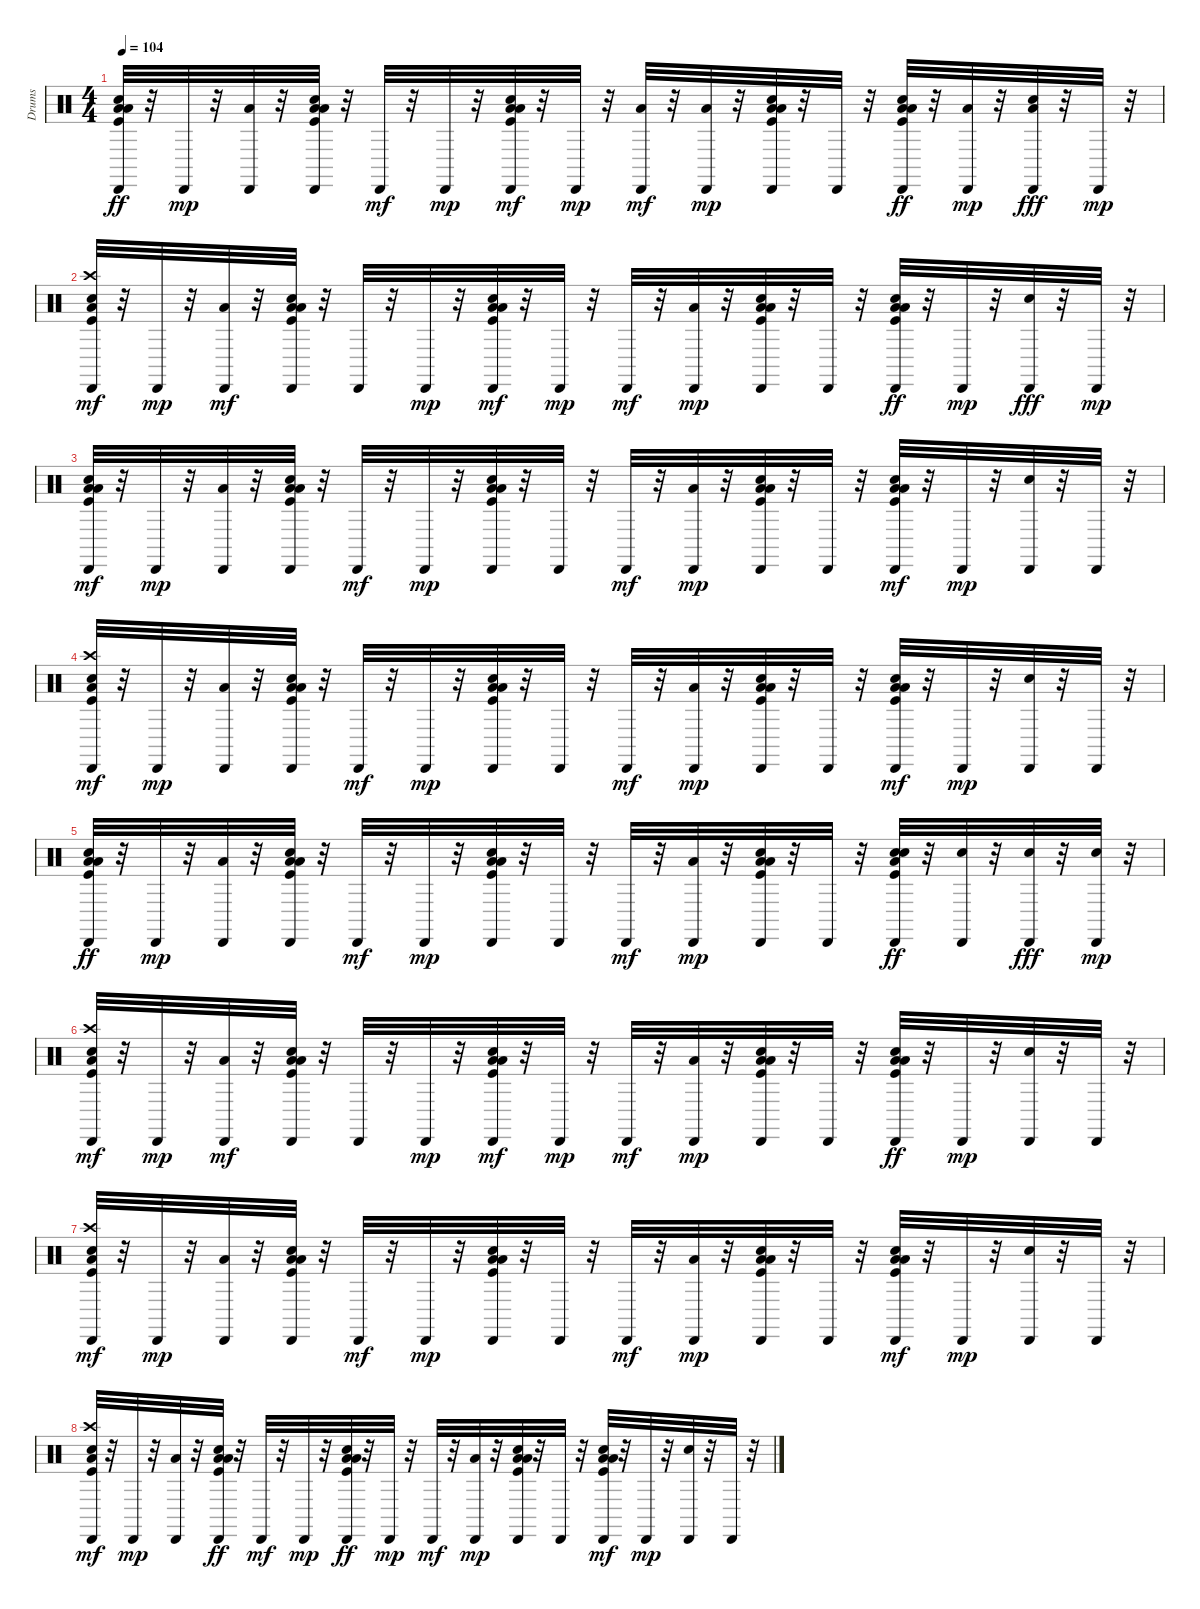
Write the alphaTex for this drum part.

\track ("Drums" "Drums") {instrument percussion}
\staff {score}
\articulation defaults
\ts (4 4)
\tempo 104
\clef neutral
\ks c
("Low Floor Tom (hit)" "Kick (hit)" "Hand Clap (hit)" "Cabasa (hit)" "Low Tom (hit)").32{dy ff} r.32 "Cabasa (hit)".32{dy mp} r.32 ("Low Tom (hit)" "Cabasa (hit)").32 r.32 ("Low Tom (hit)" "Kick (hit)" "Cabasa (hit)" "Low Floor Tom (hit)" "Hand Clap (hit)").32 r.32 "Cabasa (hit)".32{dy mf} r.32 "Cabasa (hit)".32{dy mp} r.32 ("Low Tom (hit)" "Low Floor Tom (hit)" "Kick (hit)" "Cabasa (hit)" "Hand Clap (hit)").32{dy mf} r.32 "Cabasa (hit)".32{dy mp} r.32 ("Cabasa (hit)" "Low Tom (hit)").32{dy mf} r.32 ("Low Tom (hit)" "Cabasa (hit)").32{dy mp} r.32 ("Low Tom (hit)" "Low Floor Tom (hit)" "Kick (hit)" "Hand Clap (hit)" "Cabasa (hit)").32 r.32 "Cabasa (hit)".32 r.32 ("Low Tom (hit)" "Kick (hit)" "Hand Clap (hit)" "Cabasa (hit)" "Low Floor Tom (hit)").32{dy ff} r.32 ("Cabasa (hit)" "Low Tom (hit)").32{dy mp} r.32 ("Cabasa (hit)" "Low Floor Tom (hit)" "Snare (hit) 2").32{dy fff} r.32 "Cabasa (hit)".32{dy mp} r.32 |
("Low Floor Tom (hit)" "Hand Clap (hit)" "Cabasa (hit)" "Crash high (hit)" "Kick (hit)").32{dy mf} r.32 "Cabasa (hit)".32{dy mp} r.32 ("Cabasa (hit)" "Low Tom (hit)").32{dy mf} r.32 ("Hand Clap (hit)" "Cabasa (hit)" "Low Tom (hit)" "Low Floor Tom (hit)" "Kick (hit)").32 r.32 "Cabasa (hit)".32 r.32 "Cabasa (hit)".32{dy mp} r.32 ("Cabasa (hit)" "Low Tom (hit)" "Low Floor Tom (hit)" "Hand Clap (hit)" "Kick (hit)").32{dy mf} r.32 "Cabasa (hit)".32{dy mp} r.32 "Cabasa (hit)".32{dy mf} r.32 ("Cabasa (hit)" "Low Tom (hit)").32{dy mp} r.32 ("Hand Clap (hit)" "Low Tom (hit)" "Low Floor Tom (hit)" "Kick (hit)" "Cabasa (hit)").32 r.32 "Cabasa (hit)".32 r.32 ("Kick (hit)" "Hand Clap (hit)" "Cabasa (hit)" "Low Tom (hit)" "Low Floor Tom (hit)").32{dy ff} r.32 "Cabasa (hit)".32{dy mp} r.32 ("Cabasa (hit)" "Snare (hit) 2").32{dy fff} r.32 "Cabasa (hit)".32{dy mp} r.32 |
("Hand Clap (hit)" "Low Floor Tom (hit)" "Cabasa (hit)" "Kick (hit)" "Low Tom (hit)").32{dy mf} r.32 "Cabasa (hit)".32{dy mp} r.32 ("Cabasa (hit)" "Low Tom (hit)").32 r.32 ("Kick (hit)" "Hand Clap (hit)" "Cabasa (hit)" "Low Floor Tom (hit)" "Low Tom (hit)").32 r.32 "Cabasa (hit)".32{dy mf} r.32 "Cabasa (hit)".32{dy mp} r.32 ("Low Floor Tom (hit)" "Low Tom (hit)" "Kick (hit)" "Hand Clap (hit)" "Cabasa (hit)").32 r.32 "Cabasa (hit)".32 r.32 "Cabasa (hit)".32{dy mf} r.32 ("Low Tom (hit)" "Cabasa (hit)").32{dy mp} r.32 ("Low Floor Tom (hit)" "Low Tom (hit)" "Kick (hit)" "Hand Clap (hit)" "Cabasa (hit)").32 r.32 "Cabasa (hit)".32 r.32 ("Low Floor Tom (hit)" "Low Tom (hit)" "Kick (hit)" "Hand Clap (hit)" "Cabasa (hit)").32{dy mf} r.32 "Cabasa (hit)".32{dy mp} r.32 ("Snare (hit) 2" "Cabasa (hit)").32 r.32 "Cabasa (hit)".32 r.32 |
("Crash high (hit)" "Hand Clap (hit)" "Low Floor Tom (hit)" "Kick (hit)" "Cabasa (hit)").32{dy mf} r.32 "Cabasa (hit)".32{dy mp} r.32 ("Low Tom (hit)" "Cabasa (hit)").32 r.32 ("Low Tom (hit)" "Kick (hit)" "Hand Clap (hit)" "Low Floor Tom (hit)" "Cabasa (hit)").32 r.32 "Cabasa (hit)".32{dy mf} r.32 "Cabasa (hit)".32{dy mp} r.32 ("Low Tom (hit)" "Kick (hit)" "Hand Clap (hit)" "Low Floor Tom (hit)" "Cabasa (hit)").32 r.32 "Cabasa (hit)".32 r.32 "Cabasa (hit)".32{dy mf} r.32 ("Low Tom (hit)" "Cabasa (hit)").32{dy mp} r.32 ("Hand Clap (hit)" "Low Tom (hit)" "Low Floor Tom (hit)" "Kick (hit)" "Cabasa (hit)").32 r.32 "Cabasa (hit)".32 r.32 ("Low Floor Tom (hit)" "Low Tom (hit)" "Kick (hit)" "Hand Clap (hit)" "Cabasa (hit)").32{dy mf} r.32 "Cabasa (hit)".32{dy mp} r.32 ("Snare (hit) 2" "Cabasa (hit)").32 r.32 "Cabasa (hit)".32 r.32 |
("Hand Clap (hit)" "Low Floor Tom (hit)" "Kick (hit)" "Cabasa (hit)" "Low Tom (hit)").32{dy ff} r.32 "Cabasa (hit)".32{dy mp} r.32 ("Low Tom (hit)" "Cabasa (hit)").32 r.32 ("Low Tom (hit)" "Kick (hit)" "Cabasa (hit)" "Low Floor Tom (hit)" "Hand Clap (hit)").32 r.32 "Cabasa (hit)".32{dy mf} r.32 "Cabasa (hit)".32{dy mp} r.32 ("Low Tom (hit)" "Low Floor Tom (hit)" "Kick (hit)" "Cabasa (hit)" "Hand Clap (hit)").32 r.32 "Cabasa (hit)".32 r.32 "Cabasa (hit)".32{dy mf} r.32 ("Low Tom (hit)" "Cabasa (hit)").32{dy mp} r.32 ("Low Tom (hit)" "Hand Clap (hit)" "Low Floor Tom (hit)" "Kick (hit)" "Cabasa (hit)").32 r.32 "Cabasa (hit)".32 r.32 ("Kick (hit)" "Snare (hit) 2" "Hand Clap (hit)" "Cabasa (hit)" "Low Floor Tom (hit)").32{dy ff} r.32 ("Cabasa (hit)" "Snare (hit) 2").32 r.32 ("Cabasa (hit)" "Snare (hit) 2").32{dy fff} r.32 ("Snare (hit) 2" "Cabasa (hit)").32{dy mp} r.32 |
("Crash high (hit)" "Low Floor Tom (hit)" "Hand Clap (hit)" "Cabasa (hit)" "Kick (hit)").32{dy mf} r.32 "Cabasa (hit)".32{dy mp} r.32 ("Cabasa (hit)" "Low Tom (hit)").32{dy mf} r.32 ("Cabasa (hit)" "Low Tom (hit)" "Low Floor Tom (hit)" "Kick (hit)" "Hand Clap (hit)").32 r.32 "Cabasa (hit)".32 r.32 "Cabasa (hit)".32{dy mp} r.32 ("Cabasa (hit)" "Low Tom (hit)" "Low Floor Tom (hit)" "Kick (hit)" "Hand Clap (hit)").32{dy mf} r.32 "Cabasa (hit)".32{dy mp} r.32 "Cabasa (hit)".32{dy mf} r.32 ("Cabasa (hit)" "Low Tom (hit)").32{dy mp} r.32 ("Hand Clap (hit)" "Low Tom (hit)" "Low Floor Tom (hit)" "Kick (hit)" "Cabasa (hit)").32 r.32 "Cabasa (hit)".32 r.32 ("Kick (hit)" "Hand Clap (hit)" "Cabasa (hit)" "Low Tom (hit)" "Low Floor Tom (hit)").32{dy ff} r.32 "Cabasa (hit)".32{dy mp} r.32 ("Snare (hit) 2" "Cabasa (hit)").32 r.32 "Cabasa (hit)".32 r.32 |
("Crash high (hit)" "Low Floor Tom (hit)" "Hand Clap (hit)" "Kick (hit)" "Cabasa (hit)").32{dy mf} r.32 "Cabasa (hit)".32{dy mp} r.32 ("Low Tom (hit)" "Cabasa (hit)").32 r.32 ("Kick (hit)" "Hand Clap (hit)" "Low Floor Tom (hit)" "Low Tom (hit)" "Cabasa (hit)").32 r.32 "Cabasa (hit)".32{dy mf} r.32 "Cabasa (hit)".32{dy mp} r.32 ("Low Floor Tom (hit)" "Low Tom (hit)" "Kick (hit)" "Hand Clap (hit)" "Cabasa (hit)").32 r.32 "Cabasa (hit)".32 r.32 "Cabasa (hit)".32{dy mf} r.32 ("Low Tom (hit)" "Cabasa (hit)").32{dy mp} r.32 ("Low Floor Tom (hit)" "Hand Clap (hit)" "Low Tom (hit)" "Kick (hit)" "Cabasa (hit)").32 r.32 "Cabasa (hit)".32 r.32 ("Low Floor Tom (hit)" "Low Tom (hit)" "Kick (hit)" "Hand Clap (hit)" "Cabasa (hit)").32{dy mf} r.32 "Cabasa (hit)".32{dy mp} r.32 ("Snare (hit) 2" "Cabasa (hit)").32 r.32 "Cabasa (hit)".32 r.32 |
("Crash high (hit)" "Hand Clap (hit)" "Low Floor Tom (hit)" "Kick (hit)" "Cabasa (hit)").32{dy mf} r.32 "Cabasa (hit)".32{dy mp} r.32 ("Low Tom (hit)" "Cabasa (hit)").32 r.32 ("Low Tom (hit)" "Kick (hit)" "Cabasa (hit)" "Hand Clap (hit)" "Low Floor Tom (hit)").32{dy ff} r.32 "Cabasa (hit)".32{dy mf} r.32 "Cabasa (hit)".32{dy mp} r.32 ("Low Tom (hit)" "Kick (hit)" "Hand Clap (hit)" "Cabasa (hit)" "Low Floor Tom (hit)").32{dy ff} r.32 "Cabasa (hit)".32{dy mp} r.32 "Cabasa (hit)".32{dy mf} r.32 ("Low Tom (hit)" "Cabasa (hit)").32{dy mp} r.32 ("Hand Clap (hit)" "Low Tom (hit)" "Low Floor Tom (hit)" "Kick (hit)" "Cabasa (hit)").32 r.32 "Cabasa (hit)".32 r.32 ("Cabasa (hit)" "Low Floor Tom (hit)" "Low Tom (hit)" "Kick (hit)" "Hand Clap (hit)").32{dy mf} r.32 "Cabasa (hit)".32{dy mp} r.32 ("Snare (hit) 2" "Cabasa (hit)").32 r.32 "Cabasa (hit)".32 r.32
